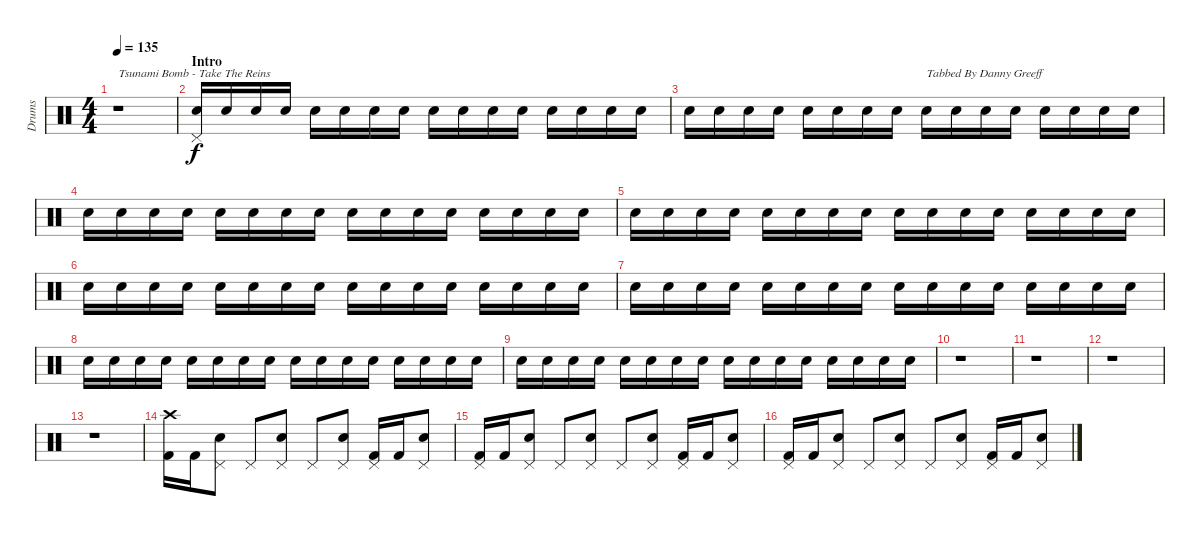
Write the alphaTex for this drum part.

\track ("Drums" "Drums") {instrument percussion}
\staff {score}
\articulation defaults
\ts (4 4)
\tempo 135
\clef neutral
\ks c
r.1{txt "Tsunami Bomb - Take The Reins" dy f} |
\section ("" "Intro")
("Pedal Hi-Hat (hit)" "Snare (hit) 2").16{volume 13} "Snare (hit) 2".16{volume 6} "Snare (hit) 2".16 "Snare (hit) 2".16 "Snare (hit) 2".16{volume 13} "Snare (hit) 2".16{volume 6} "Snare (hit) 2".16 "Snare (hit) 2".16 "Snare (hit) 2".16{volume 13} "Snare (hit) 2".16{volume 6} "Snare (hit) 2".16 "Snare (hit) 2".16 "Snare (hit) 2".16{volume 13} "Snare (hit) 2".16{volume 6} "Snare (hit) 2".16 "Snare (hit) 2".16 |
"Snare (hit) 2".16{volume 13} "Snare (hit) 2".16{volume 6} "Snare (hit) 2".16 "Snare (hit) 2".16 "Snare (hit) 2".16{volume 13} "Snare (hit) 2".16{volume 6} "Snare (hit) 2".16 "Snare (hit) 2".16 "Snare (hit) 2".16{txt "Tabbed By Danny Greeff" volume 13} "Snare (hit) 2".16{volume 6} "Snare (hit) 2".16 "Snare (hit) 2".16 "Snare (hit) 2".16{volume 13} "Snare (hit) 2".16{volume 6} "Snare (hit) 2".16 "Snare (hit) 2".16 |
"Snare (hit) 2".16{volume 13} "Snare (hit) 2".16{volume 6} "Snare (hit) 2".16 "Snare (hit) 2".16 "Snare (hit) 2".16{volume 13} "Snare (hit) 2".16{volume 6} "Snare (hit) 2".16 "Snare (hit) 2".16 "Snare (hit) 2".16{volume 13} "Snare (hit) 2".16{volume 6} "Snare (hit) 2".16 "Snare (hit) 2".16 "Snare (hit) 2".16{volume 13} "Snare (hit) 2".16{volume 6} "Snare (hit) 2".16 "Snare (hit) 2".16 |
"Snare (hit) 2".16{volume 13} "Snare (hit) 2".16{volume 6} "Snare (hit) 2".16 "Snare (hit) 2".16 "Snare (hit) 2".16{volume 13} "Snare (hit) 2".16{volume 6} "Snare (hit) 2".16 "Snare (hit) 2".16 "Snare (hit) 2".16{volume 13} "Snare (hit) 2".16{volume 6} "Snare (hit) 2".16 "Snare (hit) 2".16 "Snare (hit) 2".16{volume 13} "Snare (hit) 2".16{volume 6} "Snare (hit) 2".16 "Snare (hit) 2".16 |
"Snare (hit) 2".16{volume 13} "Snare (hit) 2".16{volume 8} "Snare (hit) 2".16 "Snare (hit) 2".16 "Snare (hit) 2".16{volume 13} "Snare (hit) 2".16{volume 8} "Snare (hit) 2".16 "Snare (hit) 2".16 "Snare (hit) 2".16{volume 13} "Snare (hit) 2".16{volume 8} "Snare (hit) 2".16 "Snare (hit) 2".16 "Snare (hit) 2".16{volume 13} "Snare (hit) 2".16{volume 8} "Snare (hit) 2".16 "Snare (hit) 2".16 |
"Snare (hit) 2".16{volume 13} "Snare (hit) 2".16{volume 10} "Snare (hit) 2".16 "Snare (hit) 2".16 "Snare (hit) 2".16{volume 13} "Snare (hit) 2".16{volume 10} "Snare (hit) 2".16 "Snare (hit) 2".16 "Snare (hit) 2".16{volume 13} "Snare (hit) 2".16{volume 10} "Snare (hit) 2".16 "Snare (hit) 2".16 "Snare (hit) 2".16{volume 13} "Snare (hit) 2".16{volume 10} "Snare (hit) 2".16 "Snare (hit) 2".16 |
"Snare (hit) 2".16{volume 13} "Snare (hit) 2".16{volume 11} "Snare (hit) 2".16 "Snare (hit) 2".16 "Snare (hit) 2".16{volume 13} "Snare (hit) 2".16{volume 11} "Snare (hit) 2".16 "Snare (hit) 2".16 "Snare (hit) 2".16{volume 13} "Snare (hit) 2".16{volume 12} "Snare (hit) 2".16 "Snare (hit) 2".16 "Snare (hit) 2".16{volume 13} "Snare (hit) 2".16{volume 12} "Snare (hit) 2".16 "Snare (hit) 2".16 |
"Snare (hit) 2".16{volume 13} "Snare (hit) 2".16 "Snare (hit) 2".16 "Snare (hit) 2".16 "Snare (hit) 2".16 "Snare (hit) 2".16 "Snare (hit) 2".16 "Snare (hit) 2".16 "Snare (hit) 2".16 "Snare (hit) 2".16 "Snare (hit) 2".16 "Snare (hit) 2".16 "Snare (hit) 2".16 "Snare (hit) 2".16 "Snare (hit) 2".16 "Snare (hit) 2".16 |
r.1 |
r.1 |
r.1 |
r.1 |
("Crash high (hit)" "Kick (hit) 2").16 "Kick (hit) 2".16 ("Pedal Hi-Hat (hit)" "Snare (hit) 2").8 "Pedal Hi-Hat (hit)".8 ("Pedal Hi-Hat (hit)" "Snare (hit) 2").8 "Pedal Hi-Hat (hit)".8 ("Pedal Hi-Hat (hit)" "Snare (hit) 2").8 ("Pedal Hi-Hat (hit)" "Kick (hit) 2").16 "Kick (hit) 2".16 ("Pedal Hi-Hat (hit)" "Snare (hit) 2").8 |
("Pedal Hi-Hat (hit)" "Kick (hit) 2").16 "Kick (hit) 2".16 ("Pedal Hi-Hat (hit)" "Snare (hit) 2").8 "Pedal Hi-Hat (hit)".8 ("Pedal Hi-Hat (hit)" "Snare (hit) 2").8 "Pedal Hi-Hat (hit)".8 ("Pedal Hi-Hat (hit)" "Snare (hit) 2").8 ("Pedal Hi-Hat (hit)" "Kick (hit) 2").16 "Kick (hit) 2".16 ("Pedal Hi-Hat (hit)" "Snare (hit) 2").8 |
("Pedal Hi-Hat (hit)" "Kick (hit) 2").16 "Kick (hit) 2".16 ("Pedal Hi-Hat (hit)" "Snare (hit) 2").8 "Pedal Hi-Hat (hit)".8 ("Pedal Hi-Hat (hit)" "Snare (hit) 2").8 "Pedal Hi-Hat (hit)".8 ("Pedal Hi-Hat (hit)" "Snare (hit) 2").8 ("Pedal Hi-Hat (hit)" "Kick (hit) 2").16 "Kick (hit) 2".16 ("Pedal Hi-Hat (hit)" "Snare (hit) 2").8
